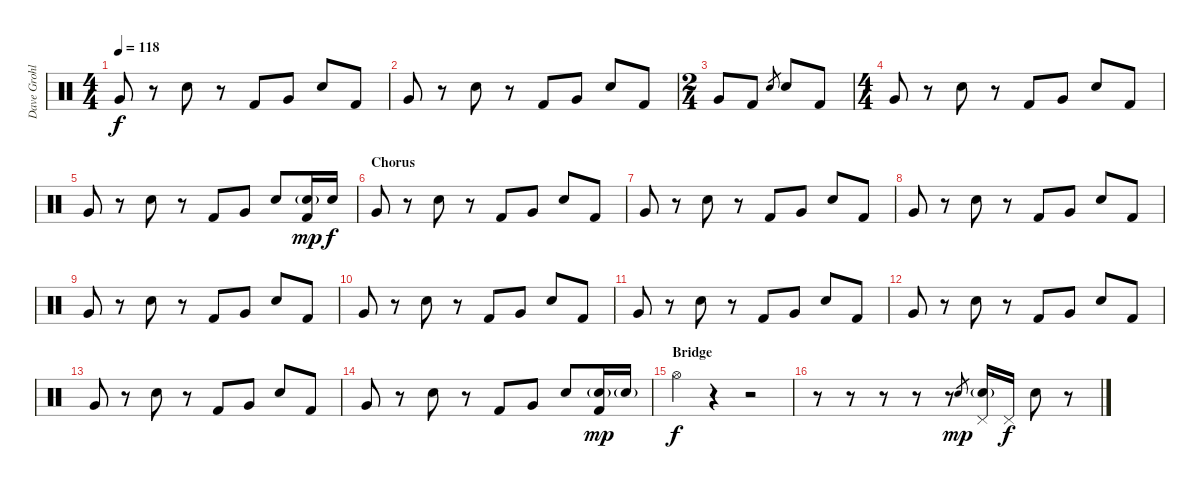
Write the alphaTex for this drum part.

\track ("Dave Grohl - Drums" "Dave Grohl") {instrument percussion}
\staff {score}
\articulation defaults
\ts (4 4)
\tempo 118
\clef neutral
\ks c "Very Low Tom (hit)".8{dy f}
r.8 "Electric Snare (hit)".8 r.8 "Kick (hit) 2".8 "Very Low Tom (hit)".8 "Electric Snare (hit)".8 "Kick (hit) 2".8 |
"Very Low Tom (hit)".8 r.8 "Electric Snare (hit)".8 r.8 "Kick (hit) 2".8 "Very Low Tom (hit)".8 "Electric Snare (hit)".8 "Kick (hit) 2".8 |
\ts (2 4)
"Very Low Tom (hit)".8 "Kick (hit) 2".8 "Electric Snare (hit)".8{gr} "Electric Snare (hit)".8 "Kick (hit) 2".8 |
\ts (4 4)
"Very Low Tom (hit)".8 r.8 "Electric Snare (hit)".8 r.8 "Kick (hit) 2".8 "Very Low Tom (hit)".8 "Electric Snare (hit)".8 "Kick (hit) 2".8 |
"Very Low Tom (hit)".8 r.8 "Electric Snare (hit)".8 r.8 "Kick (hit) 2".8 "Very Low Tom (hit)".8 "Electric Snare (hit)".8 ("Electric Snare (hit)"{g} "Kick (hit) 2").16{dy mp} "Electric Snare (hit)".16{dy f} |
\section ("" "Chorus")
"Very Low Tom (hit)".8 r.8 "Electric Snare (hit)".8 r.8 "Kick (hit) 2".8 "Very Low Tom (hit)".8 "Electric Snare (hit)".8 "Kick (hit) 2".8 |
"Very Low Tom (hit)".8 r.8 "Electric Snare (hit)".8 r.8 "Kick (hit) 2".8 "Very Low Tom (hit)".8 "Electric Snare (hit)".8 "Kick (hit) 2".8 |
"Very Low Tom (hit)".8 r.8 "Electric Snare (hit)".8 r.8 "Kick (hit) 2".8 "Very Low Tom (hit)".8 "Electric Snare (hit)".8 "Kick (hit) 2".8 |
"Very Low Tom (hit)".8 r.8 "Electric Snare (hit)".8 r.8 "Kick (hit) 2".8 "Very Low Tom (hit)".8 "Electric Snare (hit)".8 "Kick (hit) 2".8 |
"Very Low Tom (hit)".8 r.8 "Electric Snare (hit)".8 r.8 "Kick (hit) 2".8 "Very Low Tom (hit)".8 "Electric Snare (hit)".8 "Kick (hit) 2".8 |
"Very Low Tom (hit)".8 r.8 "Electric Snare (hit)".8 r.8 "Kick (hit) 2".8 "Very Low Tom (hit)".8 "Electric Snare (hit)".8 "Kick (hit) 2".8 |
"Very Low Tom (hit)".8 r.8 "Electric Snare (hit)".8 r.8 "Kick (hit) 2".8 "Very Low Tom (hit)".8 "Electric Snare (hit)".8 "Kick (hit) 2".8 |
"Very Low Tom (hit)".8 r.8 "Electric Snare (hit)".8 r.8 "Kick (hit) 2".8 "Very Low Tom (hit)".8 "Electric Snare (hit)".8 "Kick (hit) 2".8 |
"Very Low Tom (hit)".8 r.8 "Electric Snare (hit)".8 r.8 "Kick (hit) 2".8 "Very Low Tom (hit)".8 "Electric Snare (hit)".8 ("Kick (hit) 2" "Electric Snare (hit)"{g}).16{dy mp} "Electric Snare (hit)"{g}.16 |
\section ("" "Bridge")
"Hi-Hat (open)".4{dy f} r.4 r.2 |
r.8 r.8 r.8 r.8 r.8 "Electric Snare (hit)".8{gr dy mp} ("Pedal Hi-Hat (hit)" "Electric Snare (hit)"{g}).16 "Pedal Hi-Hat (hit)".16{dy f} "Electric Snare (hit)".8 r.8
